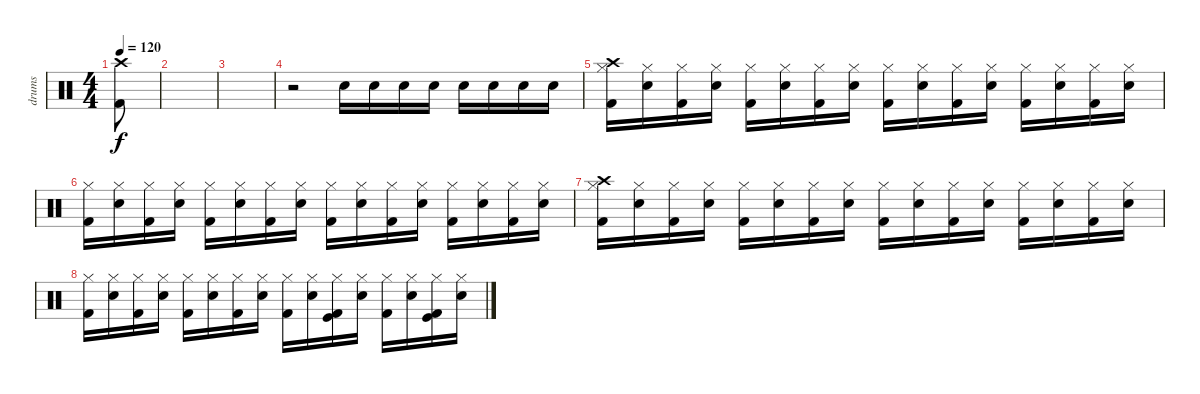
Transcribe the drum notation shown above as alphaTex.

\track ("drums" "drums") {instrument percussion}
\staff {score}
\articulation defaults
\ts (4 4)
\tempo 120
\clef neutral
\ks c
("Kick (hit) 2" "Crash high (hit)").8{dy f} |
|
|
r.2 "Snare (hit) 2".16 "Snare (hit) 2".16 "Snare (hit) 2".16 "Snare (hit) 2".16 "Snare (hit) 2".16 "Snare (hit) 2".16 "Snare (hit) 2".16 "Snare (hit) 2".16 |
("Hi-Hat (closed)" "Crash high (hit)" "Kick (hit) 2").16 ("Hi-Hat (closed)" "Snare (hit) 2").16 ("Hi-Hat (closed)" "Kick (hit) 2").16 ("Hi-Hat (closed)" "Snare (hit) 2").16 ("Hi-Hat (closed)" "Kick (hit) 2").16 ("Hi-Hat (closed)" "Snare (hit) 2").16 ("Hi-Hat (closed)" "Kick (hit) 2").16 ("Hi-Hat (closed)" "Snare (hit) 2").16 ("Hi-Hat (closed)" "Kick (hit) 2").16 ("Hi-Hat (closed)" "Snare (hit) 2").16 ("Hi-Hat (closed)" "Kick (hit) 2").16 ("Hi-Hat (closed)" "Snare (hit) 2").16 ("Hi-Hat (closed)" "Kick (hit) 2").16 ("Hi-Hat (closed)" "Snare (hit) 2").16 ("Hi-Hat (closed)" "Kick (hit) 2").16 ("Hi-Hat (closed)" "Snare (hit) 2").16 |
("Hi-Hat (closed)" "Kick (hit) 2").16 ("Hi-Hat (closed)" "Snare (hit) 2").16 ("Hi-Hat (closed)" "Kick (hit) 2").16 ("Hi-Hat (closed)" "Snare (hit) 2").16 ("Hi-Hat (closed)" "Kick (hit) 2").16 ("Hi-Hat (closed)" "Snare (hit) 2").16 ("Hi-Hat (closed)" "Kick (hit) 2").16 ("Hi-Hat (closed)" "Snare (hit) 2").16 ("Hi-Hat (closed)" "Kick (hit) 2").16 ("Hi-Hat (closed)" "Snare (hit) 2").16 ("Hi-Hat (closed)" "Kick (hit) 2").16 ("Hi-Hat (closed)" "Snare (hit) 2").16 ("Hi-Hat (closed)" "Kick (hit) 2").16 ("Hi-Hat (closed)" "Snare (hit) 2").16 ("Hi-Hat (closed)" "Kick (hit) 2").16 ("Hi-Hat (closed)" "Snare (hit) 2").16 |
("Hi-Hat (closed)" "Crash high (hit)" "Kick (hit) 2").16 ("Hi-Hat (closed)" "Snare (hit) 2").16 ("Hi-Hat (closed)" "Kick (hit) 2").16 ("Hi-Hat (closed)" "Snare (hit) 2").16 ("Hi-Hat (closed)" "Kick (hit) 2").16 ("Hi-Hat (closed)" "Snare (hit) 2").16 ("Hi-Hat (closed)" "Kick (hit) 2").16 ("Hi-Hat (closed)" "Snare (hit) 2").16 ("Hi-Hat (closed)" "Kick (hit) 2").16 ("Hi-Hat (closed)" "Snare (hit) 2").16 ("Hi-Hat (closed)" "Kick (hit) 2").16 ("Hi-Hat (closed)" "Snare (hit) 2").16 ("Hi-Hat (closed)" "Kick (hit) 2").16 ("Hi-Hat (closed)" "Snare (hit) 2").16 ("Hi-Hat (closed)" "Kick (hit) 2").16 ("Hi-Hat (closed)" "Snare (hit) 2").16 |
("Hi-Hat (closed)" "Kick (hit) 2").16 ("Hi-Hat (closed)" "Snare (hit) 2").16 ("Hi-Hat (closed)" "Kick (hit) 2").16 ("Hi-Hat (closed)" "Snare (hit) 2").16 ("Hi-Hat (closed)" "Kick (hit) 2").16 ("Hi-Hat (closed)" "Snare (hit) 2").16 ("Hi-Hat (closed)" "Kick (hit) 2").16 ("Hi-Hat (closed)" "Snare (hit) 2").16 ("Hi-Hat (closed)" "Kick (hit) 2").16 ("Hi-Hat (closed)" "Snare (hit) 2").16 ("Hi-Hat (closed)" "Kick (hit) 2" "Kick (hit)").16 ("Hi-Hat (closed)" "Snare (hit) 2").16 ("Hi-Hat (closed)" "Kick (hit) 2").16 ("Hi-Hat (closed)" "Snare (hit) 2").16 ("Hi-Hat (closed)" "Kick (hit) 2" "Kick (hit)").16 ("Hi-Hat (closed)" "Snare (hit) 2").16
